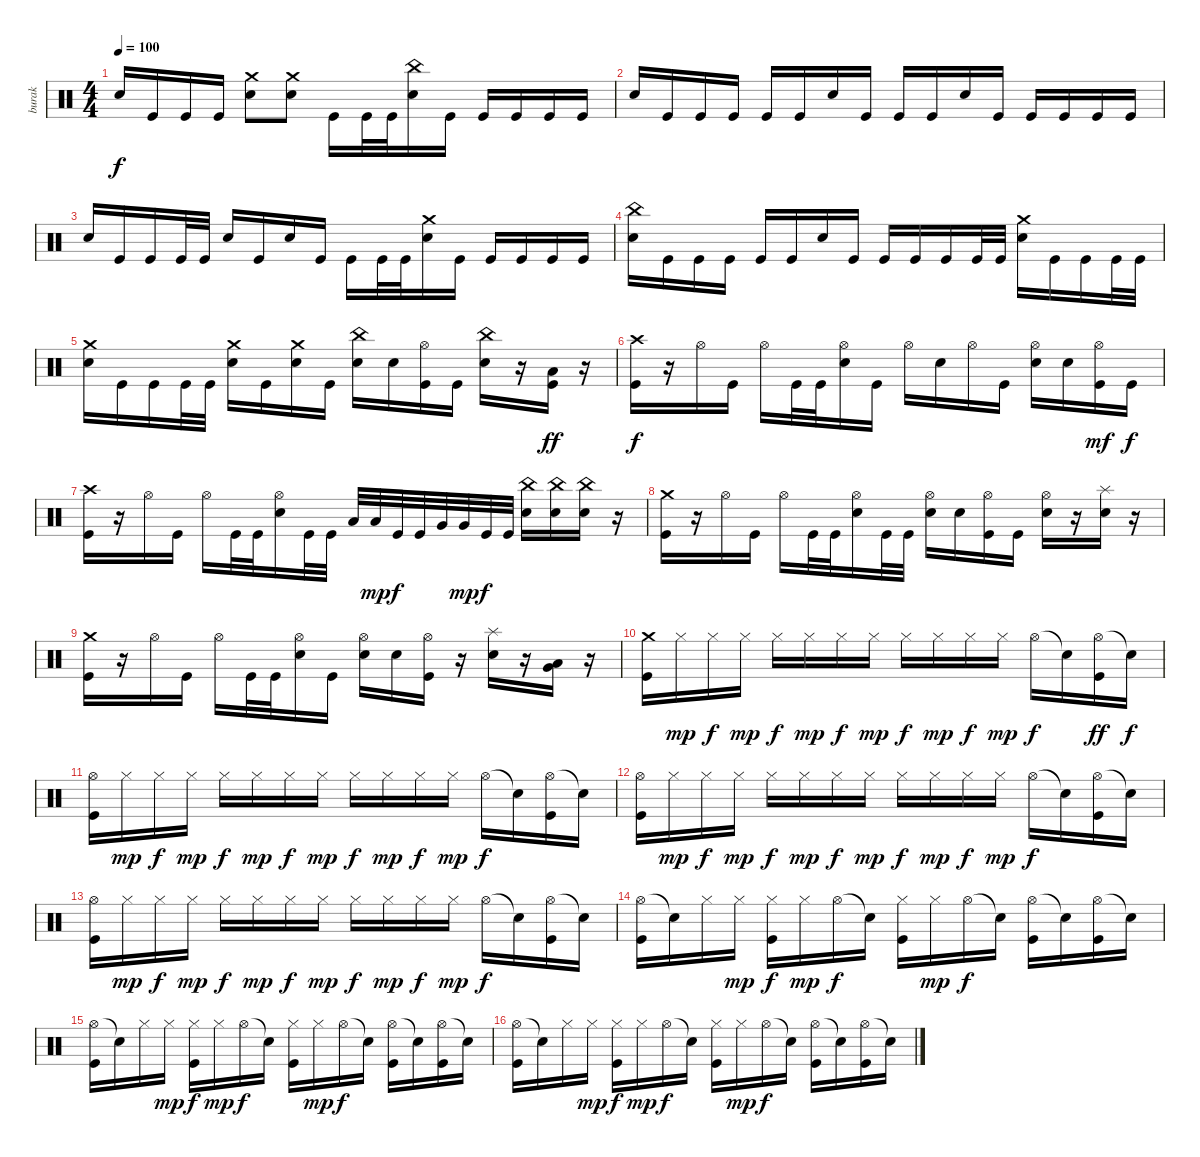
\track ("burak" "burak") {instrument percussion}
\staff {score}
\articulation defaults
\ts (4 4)
\tempo 100
\clef neutral
\ks c "Electric Snare (hit)".16{dy f volume 0} "Kick (hit)".16{volume 13} "Kick (hit)".16 "Kick (hit)".16
("Crash medium (hit)" "Electric Snare (hit)").8 ("Crash medium (hit)" "Electric Snare (hit)").8 "Kick (hit)".16 "Kick (hit)".32 "Kick (hit)".32 ("China (hit)" "Electric Snare (hit)").16 "Kick (hit)".16 "Kick (hit)".16 "Kick (hit)".16 "Kick (hit)".16 "Kick (hit)".16 |
"Electric Snare (hit)".16 "Kick (hit)".16 "Kick (hit)".16 "Kick (hit)".16 "Kick (hit)".16 "Kick (hit)".16 "Electric Snare (hit)".16 "Kick (hit)".16 "Kick (hit)".16 "Kick (hit)".16 "Electric Snare (hit)".16 "Kick (hit)".16 "Kick (hit)".16 "Kick (hit)".16 "Kick (hit)".16 "Kick (hit)".16 |
"Electric Snare (hit)".16 "Kick (hit)".16 "Kick (hit)".16 "Kick (hit)".32 "Kick (hit)".32 "Electric Snare (hit)".16 "Kick (hit)".16 "Electric Snare (hit)".16 "Kick (hit)".16 "Kick (hit)".16 "Kick (hit)".32 "Kick (hit)".32 ("Crash medium (hit)" "Electric Snare (hit)").16 "Kick (hit)".16 "Kick (hit)".16 "Kick (hit)".16 "Kick (hit)".16 "Kick (hit)".16 |
("China (hit)" "Electric Snare (hit)").16 "Kick (hit)".16 "Kick (hit)".16 "Kick (hit)".16 "Kick (hit)".16 "Kick (hit)".16 "Electric Snare (hit)".16 "Kick (hit)".16 "Kick (hit)".16 "Kick (hit)".16 "Kick (hit)".16 "Kick (hit)".32 "Kick (hit)".32 ("Crash medium (hit)" "Electric Snare (hit)").16 "Kick (hit)".16 "Kick (hit)".16 "Kick (hit)".32 "Kick (hit)".32 |
("Crash medium (hit)" "Electric Snare (hit)").16 "Kick (hit)".16 "Kick (hit)".16 "Kick (hit)".32 "Kick (hit)".32 ("Crash medium (hit)" "Electric Snare (hit)").16 "Kick (hit)".16 ("Crash medium (hit)" "Electric Snare (hit)").16 "Kick (hit)".16 ("China (hit)" "Electric Snare (hit)").16 "Electric Snare (hit)".16 ("Hi-Hat (open)" "Kick (hit)").16 "Kick (hit)".16 ("China (hit)" "Electric Snare (hit)").16 r.16 ("Low Floor Tom (hit)" "Kick (hit)").16{dy ff} r.16 |
("Crash high (hit)" "Kick (hit)").16{dy f} r.16 "Hi-Hat (open)".16 "Kick (hit)".16 "Hi-Hat (open)".16 "Kick (hit)".32 "Kick (hit)".32 ("Hi-Hat (open)" "Electric Snare (hit)").16 "Kick (hit)".16 "Hi-Hat (open)".16 "Electric Snare (hit)".16 "Hi-Hat (open)".16 "Kick (hit)".16 ("Hi-Hat (open)" "Electric Snare (hit)").16 "Electric Snare (hit)".16 ("Hi-Hat (open)" "Kick (hit)").16{dy mf} "Kick (hit)".16{dy f} |
("Crash high (hit)" "Kick (hit)").16 r.16 "Hi-Hat (open)".16 "Kick (hit)".16 "Hi-Hat (open)".16 "Kick (hit)".32 "Kick (hit)".32 ("Hi-Hat (open)" "Electric Snare (hit)").16 "Kick (hit)".32 "Kick (hit)".32 "Low Tom (hit)".32 "Low Tom (hit)".32{dy mp} "Kick (hit)".32{dy f} "Kick (hit)".32 "Very Low Tom (hit)".32 "Very Low Tom (hit)".32{dy mp} "Kick (hit)".32{dy f} "Kick (hit)".32 ("China (hit)" "Electric Snare (hit)").16 ("China (hit)" "Electric Snare (hit)").16 ("China (hit)" "Electric Snare (hit)").16 r.16 |
("Crash medium (hit)" "Kick (hit)").16 r.16 "Hi-Hat (open)".16 "Kick (hit)".16 "Hi-Hat (open)".16 "Kick (hit)".32 "Kick (hit)".32 ("Hi-Hat (open)" "Electric Snare (hit)").16 "Kick (hit)".32 "Kick (hit)".32 ("Hi-Hat (open)" "Electric Snare (hit)").16 "Electric Snare (hit)".16 ("Hi-Hat (open)" "Kick (hit)").16 "Kick (hit)".16 ("Hi-Hat (open)" "Electric Snare (hit)").16 r.16 ("Splash (hit)" "Electric Snare (hit)").16 r.16 |
("Crash medium (hit)" "Kick (hit)").16 r.16 "Hi-Hat (open)".16 "Kick (hit)".16 "Hi-Hat (open)".16 "Kick (hit)".32 "Kick (hit)".32 ("Hi-Hat (open)" "Electric Snare (hit)").16 "Kick (hit)".16 ("Hi-Hat (open)" "Electric Snare (hit)").16 "Electric Snare (hit)".16 ("Hi-Hat (open)" "Kick (hit)").16 r.16 ("Splash (hit)" "Electric Snare (hit)").16 r.16 ("Low Tom (hit)" "Very Low Tom (hit)").16 r.16 |
("Crash medium (hit)" "Kick (hit)").16 "Hi-Hat (closed)".16{dy mp} "Hi-Hat (closed)".16{dy f} "Hi-Hat (closed)".16{dy mp} "Hi-Hat (closed)".16{dy f} "Hi-Hat (closed)".16{dy mp} "Hi-Hat (closed)".16{dy f} "Hi-Hat (closed)".16{dy mp} "Hi-Hat (closed)".16{dy f} "Hi-Hat (closed)".16{dy mp} "Hi-Hat (closed)".16{dy f} "Hi-Hat (closed)".16{dy mp} "Hi-Hat (open)".16{dy f} "Snare (hit)"{t}.16 ("Hi-Hat (open)" "Kick (hit)").16{dy ff} "Snare (hit)"{t}.16{dy f} |
("Hi-Hat (open)" "Kick (hit)").16 "Hi-Hat (closed)".16{dy mp} "Hi-Hat (closed)".16{dy f} "Hi-Hat (closed)".16{dy mp} "Hi-Hat (closed)".16{dy f} "Hi-Hat (closed)".16{dy mp} "Hi-Hat (closed)".16{dy f} "Hi-Hat (closed)".16{dy mp} "Hi-Hat (closed)".16{dy f} "Hi-Hat (closed)".16{dy mp} "Hi-Hat (closed)".16{dy f} "Hi-Hat (closed)".16{dy mp} "Hi-Hat (open)".16{dy f} "Snare (hit)"{t}.16 ("Hi-Hat (open)" "Kick (hit)").16 "Snare (hit)"{t}.16 |
("Hi-Hat (open)" "Kick (hit)").16 "Hi-Hat (closed)".16{dy mp} "Hi-Hat (closed)".16{dy f} "Hi-Hat (closed)".16{dy mp} "Hi-Hat (closed)".16{dy f} "Hi-Hat (closed)".16{dy mp} "Hi-Hat (closed)".16{dy f} "Hi-Hat (closed)".16{dy mp} "Hi-Hat (closed)".16{dy f} "Hi-Hat (closed)".16{dy mp} "Hi-Hat (closed)".16{dy f} "Hi-Hat (closed)".16{dy mp} "Hi-Hat (open)".16{dy f} "Snare (hit)"{t}.16 ("Hi-Hat (open)" "Kick (hit)").16 "Snare (hit)"{t}.16 |
("Hi-Hat (open)" "Kick (hit)").16 "Hi-Hat (closed)".16{dy mp} "Hi-Hat (closed)".16{dy f} "Hi-Hat (closed)".16{dy mp} "Hi-Hat (closed)".16{dy f} "Hi-Hat (closed)".16{dy mp} "Hi-Hat (closed)".16{dy f} "Hi-Hat (closed)".16{dy mp} "Hi-Hat (closed)".16{dy f} "Hi-Hat (closed)".16{dy mp} "Hi-Hat (closed)".16{dy f} "Hi-Hat (closed)".16{dy mp} "Hi-Hat (open)".16{dy f} "Snare (hit)"{t}.16 ("Hi-Hat (open)" "Kick (hit)").16 "Snare (hit)"{t}.16 |
("Hi-Hat (open)" "Kick (hit)").16 "Snare (hit)"{t}.16 "Hi-Hat (closed)".16 "Hi-Hat (closed)".16{dy mp} ("Hi-Hat (closed)" "Kick (hit)").16{dy f} "Hi-Hat (closed)".16{dy mp} "Hi-Hat (open)".16{dy f} "Snare (hit)"{t}.16 ("Hi-Hat (closed)" "Kick (hit)").16 "Hi-Hat (closed)".16{dy mp} "Hi-Hat (open)".16{dy f} "Snare (hit)"{t}.16 ("Hi-Hat (open)" "Kick (hit)").16 "Snare (hit)"{t}.16 ("Hi-Hat (open)" "Kick (hit)").16 "Snare (hit)"{t}.16 |
("Hi-Hat (open)" "Kick (hit)").16 "Snare (hit)"{t}.16 "Hi-Hat (closed)".16 "Hi-Hat (closed)".16{dy mp} ("Hi-Hat (closed)" "Kick (hit)").16{dy f} "Hi-Hat (closed)".16{dy mp} "Hi-Hat (open)".16{dy f} "Snare (hit)"{t}.16 ("Hi-Hat (closed)" "Kick (hit)").16 "Hi-Hat (closed)".16{dy mp} "Hi-Hat (open)".16{dy f} "Snare (hit)"{t}.16 ("Hi-Hat (open)" "Kick (hit)").16 "Snare (hit)"{t}.16 ("Hi-Hat (open)" "Kick (hit)").16 "Snare (hit)"{t}.16 |
("Hi-Hat (open)" "Kick (hit)").16 "Snare (hit)"{t}.16 "Hi-Hat (closed)".16 "Hi-Hat (closed)".16{dy mp} ("Hi-Hat (closed)" "Kick (hit)").16{dy f} "Hi-Hat (closed)".16{dy mp} "Hi-Hat (open)".16{dy f} "Snare (hit)"{t}.16 ("Hi-Hat (closed)" "Kick (hit)").16 "Hi-Hat (closed)".16{dy mp} "Hi-Hat (open)".16{dy f} "Snare (hit)"{t}.16 ("Hi-Hat (open)" "Kick (hit)").16 "Snare (hit)"{t}.16 ("Hi-Hat (open)" "Kick (hit)").16 "Snare (hit)"{t}.16
